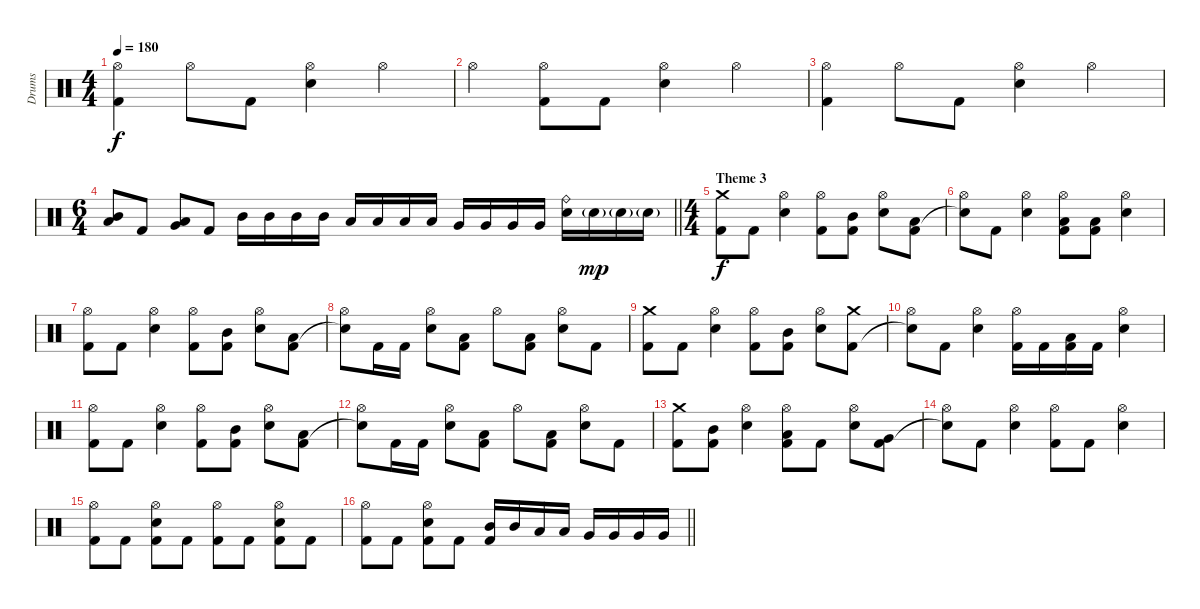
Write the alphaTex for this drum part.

\track ("Drums" "Drums") {instrument percussion}
\staff {score}
\articulation defaults
\ts (4 4)
\tempo 180
\clef neutral
\ks c
("Hi-Hat (open)" "Kick (hit) 2").4{dy f} "Hi-Hat (open)".8 "Kick (hit) 2".8 ("Hi-Hat (open)" "Snare (hit) 2").4 "Hi-Hat (open)".4 |
"Hi-Hat (open)".4 ("Hi-Hat (open)" "Kick (hit) 2").8 "Kick (hit) 2".8 ("Hi-Hat (open)" "Snare (hit) 2").4 "Hi-Hat (open)".4 |
("Hi-Hat (open)" "Kick (hit) 2").4 "Hi-Hat (open)".8 "Kick (hit) 2".8 ("Hi-Hat (open)" "Snare (hit) 2").4 "Hi-Hat (open)".4 |
\ts (6 4)
\barLineRight lightlight
("Mid Tom (hit)" "Low Tom (hit)").8 "Kick (hit) 2".8 ("Low Tom (hit)" "Very Low Tom (hit)").8 "Kick (hit) 2".8 "Mid Tom (hit)".16 "Mid Tom (hit)".16 "Mid Tom (hit)".16 "Mid Tom (hit)".16 "Low Tom (hit)".16 "Low Tom (hit)".16 "Low Tom (hit)".16 "Low Tom (hit)".16 "Very Low Tom (hit)".16 "Very Low Tom (hit)".16 "Very Low Tom (hit)".16 "Very Low Tom (hit)".16 ("Ride (bell)" "Snare (hit) 2").16 "Snare (hit) 2"{g}.16{dy mp} "Snare (hit) 2"{g}.16 "Snare (hit) 2"{g}.16 |
\ts (4 4)
\section ("" "Theme 3")
("Crash medium (hit)" "Kick (hit) 2").8{dy f} "Kick (hit) 2".8 ("Hi-Hat (open)" "Snare (hit) 2").4 ("Hi-Hat (open)" "Kick (hit) 2").8 ("Mid Tom (hit)" "Kick (hit) 2").8 ("Hi-Hat (open)" "Snare (hit) 2").8 ("Low Tom (hit)" "Kick (hit) 2").8 |
("Hi-Hat (open)" "Snare (hit)"{t}).8 "Kick (hit) 2".8 ("Hi-Hat (open)" "Snare (hit) 2").4 ("Hi-Hat (open)" "Low Tom (hit)" "Kick (hit) 2").8 ("Low Tom (hit)" "Kick (hit) 2").8 ("Hi-Hat (open)" "Snare (hit) 2").4 |
("Hi-Hat (open)" "Kick (hit) 2").8 "Kick (hit) 2".8 ("Hi-Hat (open)" "Snare (hit) 2").4 ("Hi-Hat (open)" "Kick (hit) 2").8 ("Mid Tom (hit)" "Kick (hit) 2").8 ("Hi-Hat (open)" "Snare (hit) 2").8 ("Low Tom (hit)" "Kick (hit) 2").8 |
("Hi-Hat (open)" "Snare (hit)"{t}).8 "Kick (hit) 2".16 "Kick (hit) 2".16 ("Hi-Hat (open)" "Snare (hit) 2").8 ("Low Tom (hit)" "Kick (hit) 2").8 "Hi-Hat (open)".8 ("Low Tom (hit)" "Kick (hit) 2").8 ("Hi-Hat (open)" "Snare (hit) 2").8 "Kick (hit) 2".8 |
("Crash medium (hit)" "Kick (hit) 2").8 "Kick (hit) 2".8 ("Hi-Hat (open)" "Snare (hit) 2").4 ("Hi-Hat (open)" "Kick (hit) 2").8 ("Mid Tom (hit)" "Kick (hit) 2").8 ("Hi-Hat (open)" "Snare (hit) 2").8 ("Crash medium (hit)" "Kick (hit) 2").8 |
("Hi-Hat (open)" "Snare (hit)"{t}).8 "Kick (hit) 2".8 ("Hi-Hat (open)" "Snare (hit) 2").4 ("Hi-Hat (open)" "Kick (hit) 2").16 "Kick (hit) 2".16 ("Low Tom (hit)" "Kick (hit) 2").16 "Kick (hit) 2".16 ("Hi-Hat (open)" "Snare (hit) 2").4 |
("Hi-Hat (open)" "Kick (hit) 2").8 "Kick (hit) 2".8 ("Hi-Hat (open)" "Snare (hit) 2").4 ("Hi-Hat (open)" "Kick (hit) 2").8 ("Mid Tom (hit)" "Kick (hit) 2").8 ("Hi-Hat (open)" "Snare (hit) 2").8 ("Low Tom (hit)" "Kick (hit) 2").8 |
("Hi-Hat (open)" "Snare (hit)"{t}).8 "Kick (hit) 2".16 "Kick (hit) 2".16 ("Hi-Hat (open)" "Snare (hit) 2").8 ("Low Tom (hit)" "Kick (hit) 2").8 "Hi-Hat (open)".8 ("Low Tom (hit)" "Kick (hit) 2").8 ("Hi-Hat (open)" "Snare (hit) 2").8 "Kick (hit) 2".8 |
("Crash medium (hit)" "Kick (hit) 2").8 ("Mid Tom (hit)" "Kick (hit) 2").8 ("Hi-Hat (open)" "Snare (hit) 2").4 ("Hi-Hat (open)" "Low Tom (hit)" "Kick (hit) 2").8 "Kick (hit) 2".8 ("Hi-Hat (open)" "Snare (hit) 2").8 ("Very Low Tom (hit)" "Kick (hit) 2").8 |
("Hi-Hat (open)" "Snare (hit)"{t}).8 "Kick (hit) 2".8 ("Hi-Hat (open)" "Snare (hit) 2").4 ("Hi-Hat (open)" "Kick (hit) 2").8 "Kick (hit) 2".8 ("Hi-Hat (open)" "Snare (hit) 2").4 |
("Hi-Hat (open)" "Kick (hit) 2").8 "Kick (hit) 2".8 ("Hi-Hat (open)" "Snare (hit) 2" "Kick (hit) 2").8 "Kick (hit) 2".8 ("Hi-Hat (open)" "Kick (hit) 2").8 "Kick (hit) 2".8 ("Hi-Hat (open)" "Snare (hit) 2" "Kick (hit) 2").8 "Kick (hit) 2".8 |
\barLineRight lightlight
("Hi-Hat (open)" "Kick (hit) 2").8 "Kick (hit) 2".8 ("Hi-Hat (open)" "Snare (hit) 2" "Kick (hit) 2").8 "Kick (hit) 2".8 ("Mid Tom (hit)" "Kick (hit) 2").16 "Mid Tom (hit)".16 "Low Tom (hit)".16 "Low Tom (hit)".16 "Very Low Tom (hit)".16 "Very Low Tom (hit)".16 "Very Low Tom (hit)".16 "Very Low Tom (hit)".16
